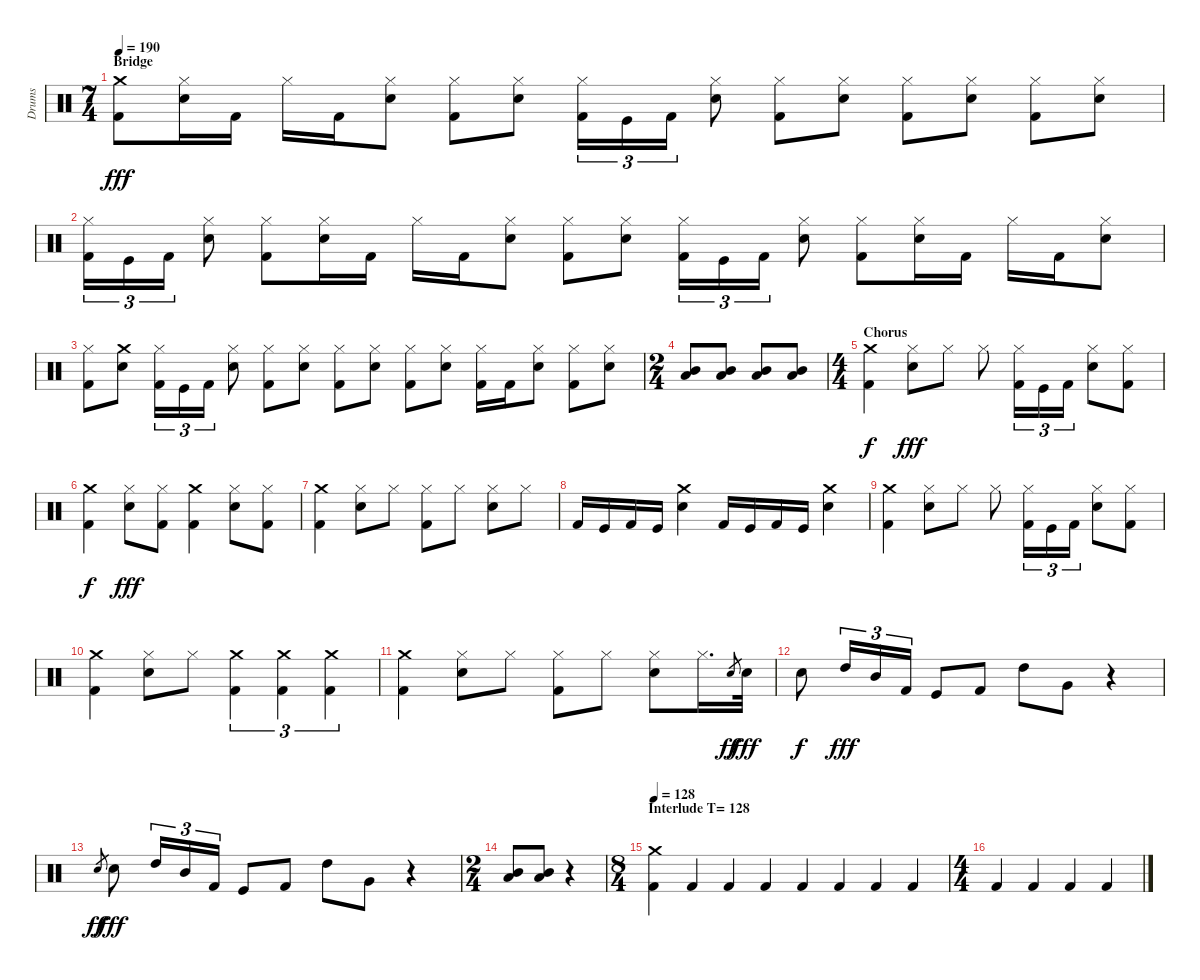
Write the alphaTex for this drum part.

\track ("Drums" "Drums") {instrument percussion}
\staff {score}
\articulation defaults
\ts (7 4)
\section ("" "Bridge")
\tempo 190
\clef neutral
\ks c
("Kick (hit) 2" "Crash medium (hit)").8{dy fff} ("Snare (hit) 2" "Hi-Hat (closed)").16 "Kick (hit) 2".16 "Hi-Hat (closed)".16 "Kick (hit) 2".16 ("Snare (hit) 2" "Hi-Hat (closed)").8 ("Kick (hit) 2" "Hi-Hat (closed)").8 ("Snare (hit) 2" "Hi-Hat (closed)").8 ("Kick (hit) 2" "Hi-Hat (closed)").16{tu (3 2)} "Kick (hit)".16{tu (3 2)} "Kick (hit) 2".16{tu (3 2)} ("Snare (hit) 2" "Hi-Hat (closed)").8 ("Kick (hit) 2" "Hi-Hat (closed)").8 ("Snare (hit) 2" "Hi-Hat (closed)").8 ("Kick (hit) 2" "Hi-Hat (closed)").8 ("Snare (hit) 2" "Hi-Hat (closed)").8 ("Kick (hit) 2" "Hi-Hat (closed)").8 ("Snare (hit) 2" "Hi-Hat (closed)").8 |
("Kick (hit) 2" "Hi-Hat (closed)").16{tu (3 2)} "Kick (hit)".16{tu (3 2)} "Kick (hit) 2".16{tu (3 2)} ("Snare (hit) 2" "Hi-Hat (closed)").8 ("Kick (hit) 2" "Hi-Hat (closed)").8 ("Snare (hit) 2" "Hi-Hat (closed)").16 "Kick (hit) 2".16 "Hi-Hat (closed)".16 "Kick (hit) 2".16 ("Snare (hit) 2" "Hi-Hat (closed)").8 ("Kick (hit) 2" "Hi-Hat (closed)").8 ("Snare (hit) 2" "Hi-Hat (closed)").8 ("Kick (hit) 2" "Hi-Hat (closed)").16{tu (3 2)} "Kick (hit)".16{tu (3 2)} "Kick (hit) 2".16{tu (3 2)} ("Snare (hit) 2" "Hi-Hat (closed)").8 ("Kick (hit) 2" "Hi-Hat (closed)").8 ("Snare (hit) 2" "Hi-Hat (closed)").16 "Kick (hit) 2".16 "Hi-Hat (closed)".16 "Kick (hit) 2".16 ("Snare (hit) 2" "Hi-Hat (closed)").8 |
("Kick (hit) 2" "Hi-Hat (closed)").8 ("Crash medium (hit)" "Snare (hit) 2").8 ("Kick (hit) 2" "Hi-Hat (closed)").16{tu (3 2)} "Kick (hit)".16{tu (3 2)} "Kick (hit) 2".16{tu (3 2)} ("Snare (hit) 2" "Hi-Hat (closed)").8 ("Hi-Hat (closed)" "Kick (hit) 2").8 ("Hi-Hat (closed)" "Snare (hit) 2").8 ("Hi-Hat (closed)" "Kick (hit) 2").8 ("Snare (hit) 2" "Hi-Hat (closed)").8 ("Hi-Hat (closed)" "Kick (hit) 2").8 ("Snare (hit) 2" "Hi-Hat (closed)").8 ("Hi-Hat (closed)" "Kick (hit) 2").16 "Kick (hit) 2".16 ("Snare (hit) 2" "Hi-Hat (closed)").8 ("Hi-Hat (closed)" "Kick (hit) 2").8 ("Snare (hit) 2" "Hi-Hat (closed)").8 |
\ts (2 4)
("Mid Tom (hit)" "Low Tom (hit)").8 ("Mid Tom (hit)" "Low Tom (hit)").8 ("Mid Tom (hit)" "Low Tom (hit)").8 ("Mid Tom (hit)" "Low Tom (hit)").8 |
\ts (4 4)
\section ("" "Chorus")
("Kick (hit) 2" "Crash medium (hit)").4{dy f} ("Snare (hit) 2" "Hi-Hat (closed)").8{dy fff} "Hi-Hat (closed)".8 "Hi-Hat (closed)".8 ("Kick (hit) 2" "Hi-Hat (closed)").16{tu (3 2)} "Kick (hit)".16{tu (3 2)} "Kick (hit) 2".16{tu (3 2)} ("Snare (hit) 2" "Hi-Hat (closed)").8 ("Kick (hit) 2" "Hi-Hat (closed)").8 |
("Kick (hit) 2" "Crash medium (hit)").4{dy f} ("Hi-Hat (closed)" "Snare (hit) 2").8{dy fff} ("Kick (hit) 2" "Hi-Hat (closed)").8 ("Crash medium (hit)" "Kick (hit) 2").4 ("Hi-Hat (closed)" "Snare (hit) 2").8 ("Kick (hit) 2" "Hi-Hat (closed)").8 |
("Kick (hit) 2" "Crash medium (hit)").4 ("Hi-Hat (closed)" "Snare (hit) 2").8 "Hi-Hat (closed)".8 ("Hi-Hat (closed)" "Kick (hit) 2").8 "Hi-Hat (closed)".8 ("Snare (hit) 2" "Hi-Hat (closed)").8 "Hi-Hat (closed)".8 |
"Kick (hit) 2".16 "Kick (hit)".16 "Kick (hit) 2".16 "Kick (hit)".16 ("Crash medium (hit)" "Snare (hit) 2").4 "Kick (hit) 2".16 "Kick (hit)".16 "Kick (hit) 2".16 "Kick (hit)".16 ("Snare (hit) 2" "Crash medium (hit)").4 |
("Kick (hit) 2" "Crash medium (hit)").4 ("Snare (hit) 2" "Hi-Hat (closed)").8 "Hi-Hat (closed)".8 "Hi-Hat (closed)".8 ("Kick (hit) 2" "Hi-Hat (closed)").16{tu (3 2)} "Kick (hit)".16{tu (3 2)} "Kick (hit) 2".16{tu (3 2)} ("Snare (hit) 2" "Hi-Hat (closed)").8 ("Kick (hit) 2" "Hi-Hat (closed)").8 |
("Kick (hit) 2" "Crash medium (hit)").4 ("Hi-Hat (closed)" "Snare (hit) 2").8 "Hi-Hat (closed)".8 ("Kick (hit) 2" "Crash medium (hit)").4{tu (3 2)} ("Kick (hit) 2" "Crash medium (hit)").4{tu (3 2)} ("Kick (hit) 2" "Crash medium (hit)").4{tu (3 2)} |
("Kick (hit) 2" "Crash medium (hit)").4 ("Hi-Hat (closed)" "Snare (hit) 2").8 "Hi-Hat (closed)".8 ("Hi-Hat (closed)" "Kick (hit) 2").8 "Hi-Hat (closed)".8 ("Snare (hit) 2" "Hi-Hat (closed)").8 "Hi-Hat (closed)".16{d} "Snare (hit)".8{gr dy ff} "Snare (hit) 2".32{dy fff} |
"Snare (hit)".8{dy f} "High Tom (hit)".16{tu (3 2) dy fff} "Mid Tom (hit)".16{tu (3 2)} "Kick (hit) 2".16{tu (3 2)} "Kick (hit)".8 "Kick (hit) 2".8 "High Tom (hit)".8 "Very Low Tom (hit)".8 r.4 |
"Snare (hit)".8{gr dy ff} "Snare (hit) 2".8{dy fff} "High Tom (hit)".16{tu (3 2)} "Mid Tom (hit)".16{tu (3 2)} "Kick (hit) 2".16{tu (3 2)} "Kick (hit)".8 "Kick (hit) 2".8 "High Tom (hit)".8 "Very Low Tom (hit)".8 r.4 |
\ts (2 4)
("Mid Tom (hit)" "Low Tom (hit)").8 ("Mid Tom (hit)" "Low Tom (hit)").8 r.4 |
\ts (8 4)
\section ("" "Interlude T= 128")
\tempo 128
("Kick (hit) 2" "Crash medium (hit)").4 "Kick (hit) 2".4 "Kick (hit) 2".4 "Kick (hit) 2".4 "Kick (hit) 2".4 "Kick (hit) 2".4 "Kick (hit) 2".4 "Kick (hit) 2".4 |
\ts (4 4)
"Kick (hit) 2".4 "Kick (hit) 2".4 "Kick (hit) 2".4 "Kick (hit) 2".4
